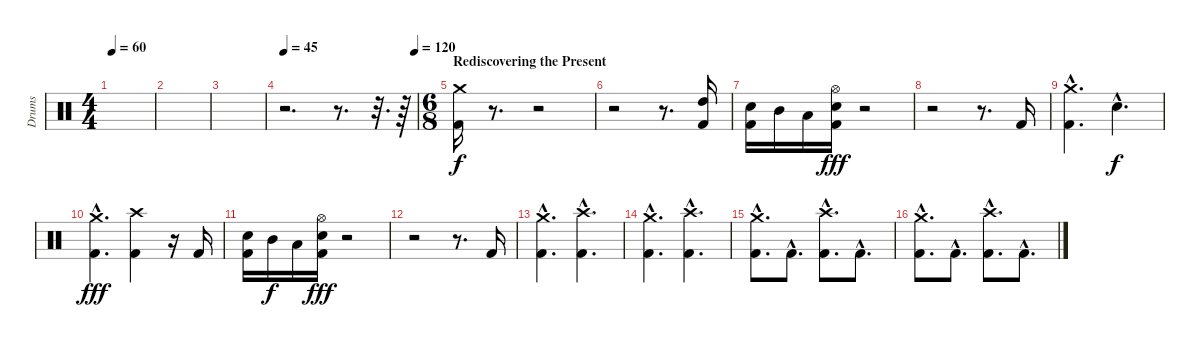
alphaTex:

\track ("Drums" "Drums") {instrument percussion}
\staff {score}
\articulation defaults
\ts (4 4)
\tempo 60
\clef neutral
\ks c
|
|
|
\tempo 45
\tempo (120 0.984375)
r.2{d} r.8{d} r.32{d} r.64 |
\ts (6 8)
\section ("" "Rediscovering the Present")
("Crash medium (hit)" "Kick (hit) 2").16{volume 15} r.8{d} r.2 |
r.2 r.8{d} ("High Tom (hit)" "Kick (hit) 2").16 |
("Snare (hit) 2" "Kick (hit) 2").16 "Mid Tom (hit)".16{dy f} "Low Tom (hit)".16 ("Hi-Hat (open)" "Snare (hit) 2" "Kick (hit) 2").16{dy fff} r.2 |
r.2 r.8{d} "Kick (hit) 2".16 |
("Crash medium (hit)"{hac} "Kick (hit) 2"{hac}).4{d} "Snare (hit) 2"{hac}.4{d dy f} |
("Crash medium (hit)"{hac} "Kick (hit) 2"{hac}).4{d dy fff} ("Crash high (hit)" "Kick (hit) 2").4 r.16 "Kick (hit) 2".16 |
("Snare (hit) 2" "Kick (hit) 2").16 "Mid Tom (hit)".16{dy f} "Low Tom (hit)".16 ("Hi-Hat (open)" "Snare (hit) 2" "Kick (hit) 2").16{dy fff} r.2 |
r.2 r.8{d} "Kick (hit) 2".16 |
("Crash medium (hit)"{hac} "Kick (hit) 2"{hac}).4{d} ("Crash high (hit)"{hac} "Kick (hit) 2"{hac}).4{d} |
("Crash medium (hit)"{hac} "Kick (hit) 2"{hac}).4{d} ("Crash high (hit)"{hac} "Kick (hit) 2"{hac}).4{d} |
("Crash medium (hit)"{hac} "Kick (hit) 2"{hac}).8{d} "Kick (hit) 2"{hac}.8{d} ("Crash high (hit)"{hac} "Kick (hit) 2"{hac}).8{d} "Kick (hit) 2"{hac}.8{d} |
("Crash medium (hit)"{hac} "Kick (hit) 2"{hac}).8{d} "Kick (hit) 2"{hac}.8{d} ("Crash high (hit)"{hac} "Kick (hit) 2"{hac}).8{d} "Kick (hit) 2"{hac}.8{d}
